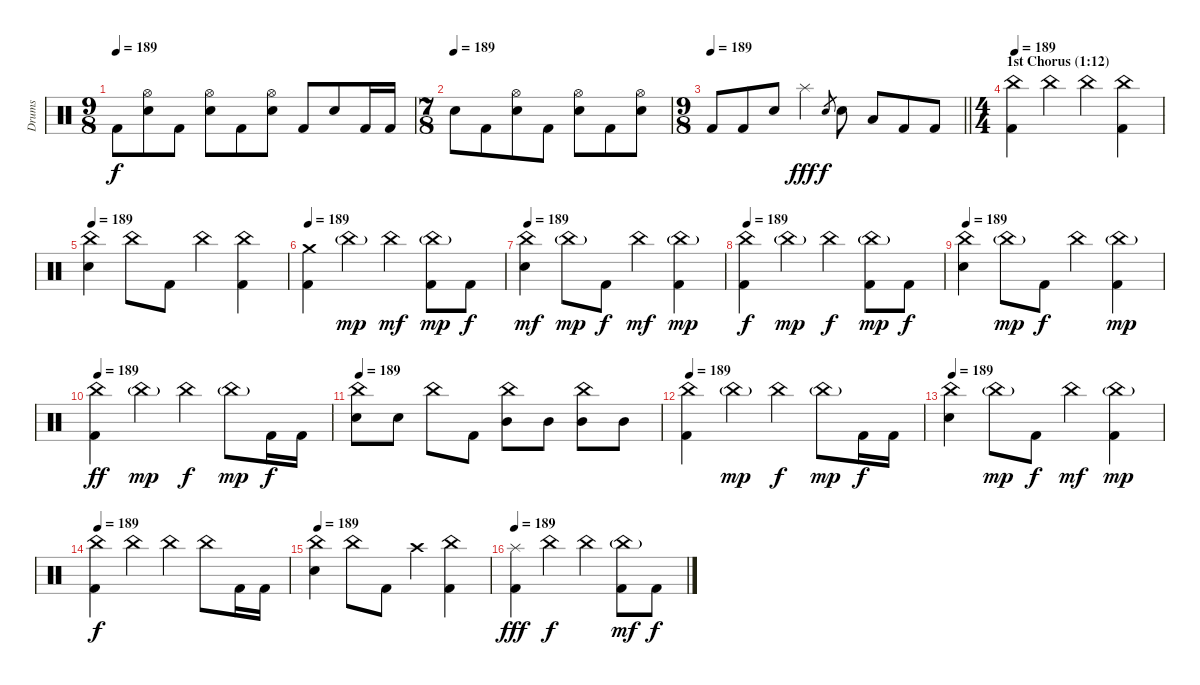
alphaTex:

\track ("Drums" "Drums") {instrument percussion}
\staff {score}
\articulation defaults
\ts (9 8)
\tempo 189
\clef neutral
\ks c "Kick (hit) 2".8{dy f}
("Hi-Hat (open)" "Snare (hit) 2").8 "Kick (hit) 2".8 ("Hi-Hat (open)" "Snare (hit) 2").8 "Kick (hit) 2".8 ("Hi-Hat (open)" "Snare (hit) 2").8 "Kick (hit) 2".8 "Snare (hit) 2".8 "Kick (hit) 2".16 "Kick (hit) 2".16 |
\ts (7 8)
\tempo (189)
"Snare (hit) 2".8 "Kick (hit) 2".8 ("Hi-Hat (open)" "Snare (hit) 2").8 "Kick (hit) 2".8 ("Hi-Hat (open)" "Snare (hit) 2").8 "Kick (hit) 2".8 ("Hi-Hat (open)" "Snare (hit) 2").8 |
\ts (9 8)
\tempo 189
\barLineRight lightlight "Kick (hit) 2".8 "Kick (hit) 2".8 "Snare (hit) 2".8 "Splash (hit)".4{dy fff} "Snare (hit) 2".8{gr dy f} "Snare (hit) 2".8 "Low Tom (hit)".8 "Kick (hit) 2".8 "Kick (hit) 2".8
|
\ts (4 4)
\section ("" "1st Chorus (1:12)")
\tempo 189
("China (hit)" "Kick (hit) 2").4 "China (hit)".4 "China (hit)".4 ("China (hit)" "Kick (hit) 2").4 |
\tempo 189
("China (hit)" "Snare (hit) 2").4 "China (hit)".8 "Kick (hit) 2".8 "China (hit)".4 ("China (hit)" "Kick (hit) 2").4 |
\tempo 189
("Crash medium (hit)" "Kick (hit) 2").4 "China (hit)"{g}.4{dy mp} "China (hit)".4{dy mf} ("China (hit)"{g} "Kick (hit) 2").8{dy mp} "Kick (hit) 2".8{dy f} |
\tempo 189
("China (hit)" "Snare (hit) 2").4{dy mf} "China (hit)"{g}.8{dy mp} "Kick (hit) 2".8{dy f} "China (hit)".4{dy mf} ("China (hit)"{g} "Kick (hit) 2").4{dy mp} |
\tempo 189
("China (hit)" "Kick (hit) 2").4{dy f} "China (hit)"{g}.4{dy mp} "China (hit)".4{dy f} ("China (hit)"{g} "Kick (hit) 2").8{dy mp} "Kick (hit) 2".8{dy f} |
\tempo 189
("China (hit)" "Snare (hit) 2").4 "China (hit)"{g}.8{dy mp} "Kick (hit) 2".8{dy f} "China (hit)".4 ("China (hit)"{g} "Kick (hit) 2").4{dy mp} |
\tempo 189
("China (hit)" "Kick (hit) 2").4{dy ff} "China (hit)"{g}.4{dy mp} "China (hit)".4{dy f} "China (hit)"{g}.8{dy mp} "Kick (hit) 2".16{dy f} "Kick (hit) 2".16 |
\tempo 189
("China (hit)" "Snare (hit) 2").8 "Snare (hit) 2".8 "China (hit)".8 "Kick (hit) 2".8 ("China (hit)" "Mid Tom (hit)").8 "Mid Tom (hit)".8 ("China (hit)" "Mid Tom (hit)").8 "Mid Tom (hit)".8 |
\tempo 189
("China (hit)" "Kick (hit) 2").4 "China (hit)"{g}.4{dy mp} "China (hit)".4{dy f} "China (hit)"{g}.8{dy mp} "Kick (hit) 2".16{dy f} "Kick (hit) 2".16 |
\tempo 189
("China (hit)" "Snare (hit) 2").4 "China (hit)"{g}.8{dy mp} "Kick (hit) 2".8{dy f} "China (hit)".4{dy mf} ("China (hit)"{g} "Kick (hit) 2").4{dy mp} |
\tempo 189
("China (hit)" "Kick (hit) 2").4{dy f} "China (hit)".4 "China (hit)".4 "China (hit)".8 "Kick (hit) 2".16 "Kick (hit) 2".16 |
\tempo 189
("China (hit)" "Snare (hit) 2").4 "China (hit)".8 "Kick (hit) 2".8 "Crash high (hit)".4 ("China (hit)" "Kick (hit) 2").4 |
\tempo 189
("Splash (hit)" "Kick (hit) 2").4{dy fff} "China (hit)".4{dy f} "China (hit)".4 ("China (hit)"{g} "Kick (hit) 2").8{dy mf} "Kick (hit) 2".8{dy f}
